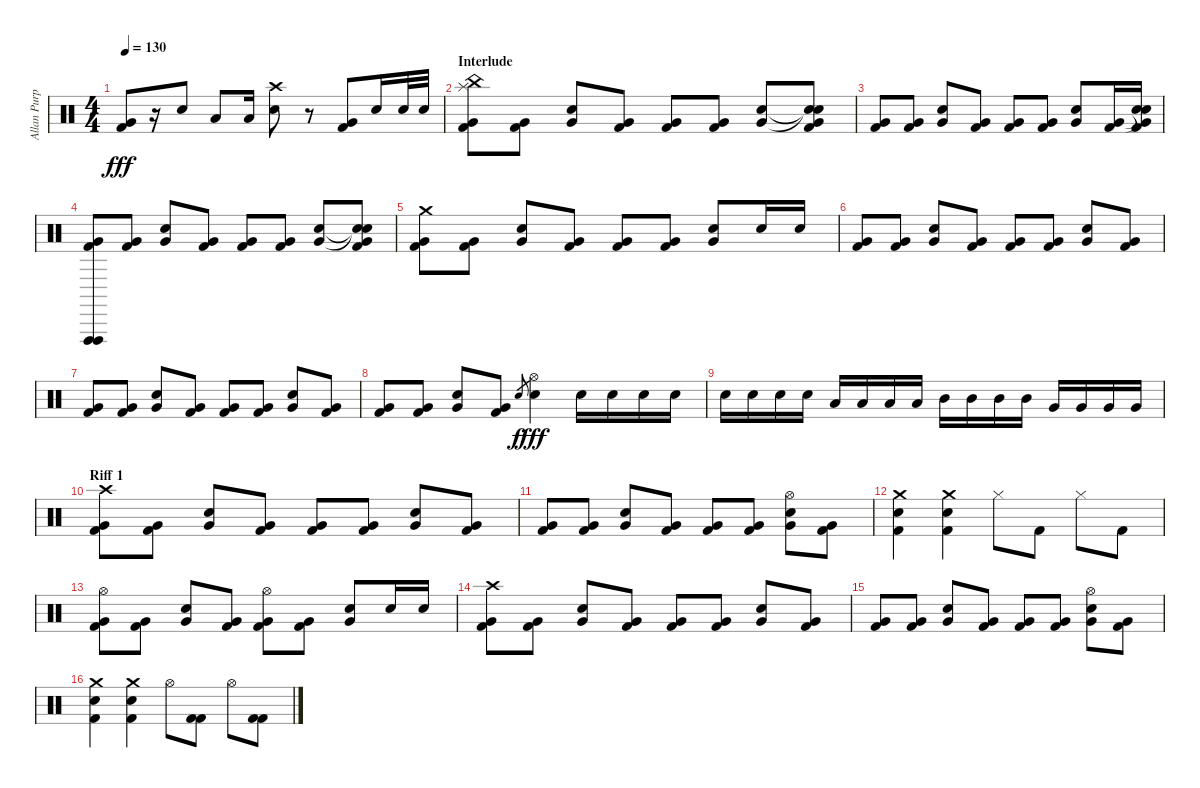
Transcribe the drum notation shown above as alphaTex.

\track ("Allan Purple" "Allan Purp") {instrument percussion}
\staff {score}
\articulation defaults
\ts (4 4)
\tempo 130
\clef neutral
\ks c
("Kick (hit) 2" "Very Low Tom (hit)").8{dy fff} r.16 "Electric Snare (hit)".8 "Low Tom (hit)".8 "Low Tom (hit)".16 ("Crash high (hit)" "Electric Snare (hit)").8 r.8 ("Kick (hit) 2" "Very Low Tom (hit)").8 "Electric Snare (hit)".16 "Electric Snare (hit)".32 "Electric Snare (hit)".32 |
\section ("" "Interlude")
("China (hit)" "Splash (hit)" "Kick (hit) 2" "Very Low Tom (hit)").8 ("Kick (hit) 2" "Very Low Tom (hit)").8 ("Electric Snare (hit)" "Very Low Tom (hit)").8 ("Kick (hit) 2" "Very Low Tom (hit)").8 ("Kick (hit) 2" "Very Low Tom (hit)").8 ("Kick (hit) 2" "Very Low Tom (hit)").8 ("Electric Snare (hit)" "Very Low Tom (hit)").8 ("Snare (hit)"{t} "Snare (hit)"{t} "Kick (hit) 2" "Very Low Tom (hit)").8 |
("Kick (hit) 2" "Very Low Tom (hit)").8 ("Kick (hit) 2" "Very Low Tom (hit)").8 ("Electric Snare (hit)" "Very Low Tom (hit)").8 ("Kick (hit) 2" "Very Low Tom (hit)").8 ("Kick (hit) 2" "Very Low Tom (hit)").8 ("Kick (hit) 2" "Very Low Tom (hit)").8 ("Electric Snare (hit)" "Very Low Tom (hit)").8 ("Kick (hit) 2" "Very Low Tom (hit)").16 ("Snare (hit)"{t} "Snare (hit)"{t} "Kick (hit) 2" "Very Low Tom (hit)").16 |
("Vibraslap (hit)" "Vibraslap (hit)" "Kick (hit) 2" "Very Low Tom (hit)").8 ("Kick (hit) 2" "Very Low Tom (hit)").8 ("Electric Snare (hit)" "Very Low Tom (hit)").8 ("Kick (hit) 2" "Very Low Tom (hit)").8 ("Kick (hit) 2" "Very Low Tom (hit)").8 ("Kick (hit) 2" "Very Low Tom (hit)").8 ("Electric Snare (hit)" "Very Low Tom (hit)").8 ("Snare (hit)"{t} "Snare (hit)"{t} "Kick (hit) 2" "Very Low Tom (hit)").8 |
("Crash medium (hit)" "Kick (hit) 2" "Very Low Tom (hit)").8 ("Kick (hit) 2" "Very Low Tom (hit)").8 ("Electric Snare (hit)" "Very Low Tom (hit)").8 ("Kick (hit) 2" "Very Low Tom (hit)").8 ("Kick (hit) 2" "Very Low Tom (hit)").8 ("Kick (hit) 2" "Very Low Tom (hit)").8 ("Electric Snare (hit)" "Very Low Tom (hit)").8 "Electric Snare (hit)".16 "Electric Snare (hit)".16 |
("Kick (hit) 2" "Very Low Tom (hit)").8 ("Kick (hit) 2" "Very Low Tom (hit)").8 ("Electric Snare (hit)" "Very Low Tom (hit)").8 ("Kick (hit) 2" "Very Low Tom (hit)").8 ("Kick (hit) 2" "Very Low Tom (hit)").8 ("Kick (hit) 2" "Very Low Tom (hit)").8 ("Electric Snare (hit)" "Very Low Tom (hit)").8 ("Kick (hit) 2" "Very Low Tom (hit)").8 |
("Kick (hit) 2" "Very Low Tom (hit)").8 ("Kick (hit) 2" "Very Low Tom (hit)").8 ("Electric Snare (hit)" "Very Low Tom (hit)").8 ("Kick (hit) 2" "Very Low Tom (hit)").8 ("Kick (hit) 2" "Very Low Tom (hit)").8 ("Kick (hit) 2" "Very Low Tom (hit)").8 ("Electric Snare (hit)" "Very Low Tom (hit)").8 ("Kick (hit) 2" "Very Low Tom (hit)").8 |
("Kick (hit) 2" "Very Low Tom (hit)").8 ("Kick (hit) 2" "Very Low Tom (hit)").8 ("Electric Snare (hit)" "Very Low Tom (hit)").8 ("Kick (hit) 2" "Very Low Tom (hit)").8 "Electric Snare (hit)".8{gr dy f} ("Hi-Hat (open)" "Electric Snare (hit)").4{dy fff} "Electric Snare (hit)".16 "Electric Snare (hit)".16 "Electric Snare (hit)".16 "Electric Snare (hit)".16 |
"Snare (hit) 2".16 "Snare (hit) 2".16 "Snare (hit) 2".16 "Snare (hit) 2".16 "Low Tom (hit)".16 "Low Tom (hit)".16 "Low Tom (hit)".16 "Low Tom (hit)".16 "Mid Tom (hit)".16 "Mid Tom (hit)".16 "Mid Tom (hit)".16 "Mid Tom (hit)".16 "Very Low Tom (hit)".16 "Very Low Tom (hit)".16 "Very Low Tom (hit)".16 "Very Low Tom (hit)".16 |
\section ("" "Riff 1")
("Crash high (hit)" "Kick (hit) 2" "Very Low Tom (hit)").8 ("Kick (hit) 2" "Very Low Tom (hit)").8 ("Electric Snare (hit)" "Very Low Tom (hit)").8 ("Kick (hit) 2" "Very Low Tom (hit)").8 ("Kick (hit) 2" "Very Low Tom (hit)").8 ("Kick (hit) 2" "Very Low Tom (hit)").8 ("Electric Snare (hit)" "Very Low Tom (hit)").8 ("Kick (hit) 2" "Very Low Tom (hit)").8 |
("Kick (hit) 2" "Very Low Tom (hit)").8 ("Kick (hit) 2" "Very Low Tom (hit)").8 ("Electric Snare (hit)" "Very Low Tom (hit)").8 ("Kick (hit) 2" "Very Low Tom (hit)").8 ("Kick (hit) 2" "Very Low Tom (hit)").8 ("Kick (hit) 2" "Very Low Tom (hit)").8 ("Hi-Hat (open)" "Electric Snare (hit)" "Very Low Tom (hit)").8 ("Kick (hit) 2" "Very Low Tom (hit)").8 |
("Crash medium (hit)" "Kick (hit) 2" "Electric Snare (hit)").4 ("Crash medium (hit)" "Kick (hit) 2" "Electric Snare (hit)").4 "Hi-Hat (closed)".8 "Kick (hit) 2".8 "Hi-Hat (closed)".8 "Kick (hit) 2".8 |
("Hi-Hat (open)" "Kick (hit) 2" "Very Low Tom (hit)").8 ("Kick (hit) 2" "Very Low Tom (hit)").8 ("Electric Snare (hit)" "Very Low Tom (hit)").8 ("Kick (hit) 2" "Very Low Tom (hit)").8 ("Hi-Hat (open)" "Kick (hit) 2" "Very Low Tom (hit)").8 ("Kick (hit) 2" "Very Low Tom (hit)").8 ("Electric Snare (hit)" "Very Low Tom (hit)").8 "Electric Snare (hit)".16 "Electric Snare (hit)".16 |
("Crash high (hit)" "Kick (hit) 2" "Very Low Tom (hit)").8 ("Kick (hit) 2" "Very Low Tom (hit)").8 ("Electric Snare (hit)" "Very Low Tom (hit)").8 ("Kick (hit) 2" "Very Low Tom (hit)").8 ("Kick (hit) 2" "Very Low Tom (hit)").8 ("Kick (hit) 2" "Very Low Tom (hit)").8 ("Electric Snare (hit)" "Very Low Tom (hit)").8 ("Kick (hit) 2" "Very Low Tom (hit)").8 |
("Kick (hit) 2" "Very Low Tom (hit)").8 ("Kick (hit) 2" "Very Low Tom (hit)").8 ("Electric Snare (hit)" "Very Low Tom (hit)").8 ("Kick (hit) 2" "Very Low Tom (hit)").8 ("Kick (hit) 2" "Very Low Tom (hit)").8 ("Kick (hit) 2" "Very Low Tom (hit)").8 ("Hi-Hat (open)" "Electric Snare (hit)" "Very Low Tom (hit)").8 ("Kick (hit) 2" "Very Low Tom (hit)").8 |
("Crash medium (hit)" "Kick (hit) 2" "Electric Snare (hit)").4 ("Crash medium (hit)" "Kick (hit) 2" "Electric Snare (hit)").4 "Hi-Hat (open)".8 ("Kick (hit) 2" "Kick (hit) 2").8 "Hi-Hat (open)".8 ("Kick (hit) 2" "Kick (hit) 2").8
